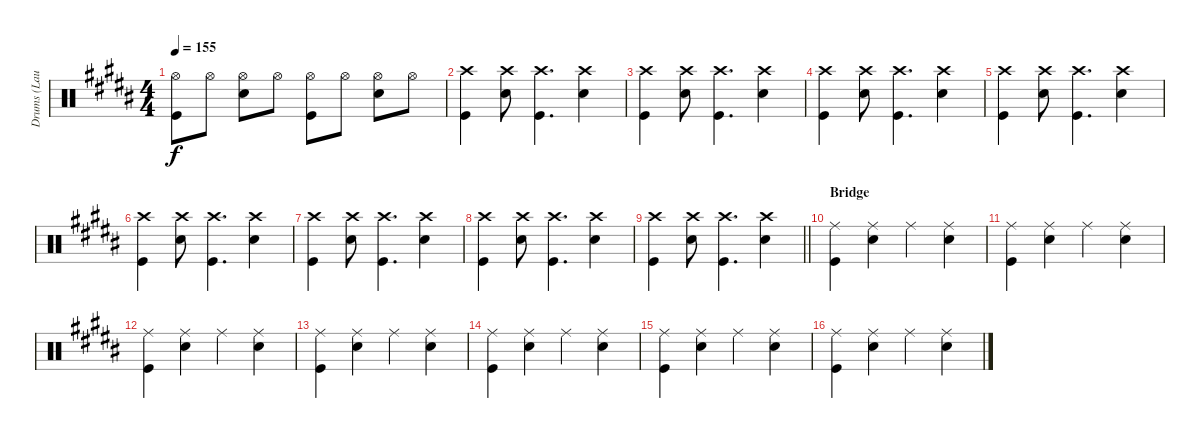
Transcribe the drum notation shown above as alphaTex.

\track ("Drums (Laust Sonne)" "Drums (Lau") {instrument percussion}
\staff {score}
\articulation defaults
\ts (4 4)
\tempo 155
\clef neutral
\ks b
("Hi-Hat (open)" "Kick (hit)").8{dy f} "Hi-Hat (open)".8 ("Hi-Hat (open)" "Snare (hit) 2").8 "Hi-Hat (open)".8 ("Hi-Hat (open)" "Kick (hit)").8 "Hi-Hat (open)".8 ("Hi-Hat (open)" "Snare (hit) 2").8 "Hi-Hat (open)".8 |
("Crash high (hit)" "Kick (hit)").4 ("Crash high (hit)" "Snare (hit) 2").8 ("Crash high (hit)" "Kick (hit)").4{d} ("Crash high (hit)" "Snare (hit) 2").4 |
("Crash high (hit)" "Kick (hit)").4 ("Crash high (hit)" "Snare (hit) 2").8 ("Crash high (hit)" "Kick (hit)").4{d} ("Crash high (hit)" "Snare (hit) 2").4 |
("Crash high (hit)" "Kick (hit)").4 ("Crash high (hit)" "Snare (hit) 2").8 ("Crash high (hit)" "Kick (hit)").4{d} ("Crash high (hit)" "Snare (hit) 2").4 |
("Crash high (hit)" "Kick (hit)").4 ("Crash high (hit)" "Snare (hit) 2").8 ("Crash high (hit)" "Kick (hit)").4{d} ("Crash high (hit)" "Snare (hit) 2").4 |
("Crash high (hit)" "Kick (hit)").4 ("Crash high (hit)" "Snare (hit) 2").8 ("Crash high (hit)" "Kick (hit)").4{d} ("Crash high (hit)" "Snare (hit) 2").4 |
("Crash high (hit)" "Kick (hit)").4 ("Crash high (hit)" "Snare (hit) 2").8 ("Crash high (hit)" "Kick (hit)").4{d} ("Crash high (hit)" "Snare (hit) 2").4 |
("Crash high (hit)" "Kick (hit)").4 ("Crash high (hit)" "Snare (hit) 2").8 ("Crash high (hit)" "Kick (hit)").4{d} ("Crash high (hit)" "Snare (hit) 2").4 |
\barLineRight lightlight
("Crash high (hit)" "Kick (hit)").4 ("Crash high (hit)" "Snare (hit) 2").8 ("Crash high (hit)" "Kick (hit)").4{d} ("Crash high (hit)" "Snare (hit) 2").4 |
\section ("" "Bridge")
("Ride (middle)" "Kick (hit)").4 ("Ride (middle)" "Snare (hit) 2").4 "Ride (middle)".4 ("Ride (middle)" "Snare (hit) 2").4 |
("Ride (middle)" "Kick (hit)").4 ("Ride (middle)" "Snare (hit) 2").4 "Ride (middle)".4 ("Ride (middle)" "Snare (hit) 2").4 |
("Ride (middle)" "Kick (hit)").4 ("Ride (middle)" "Snare (hit) 2").4 "Ride (middle)".4 ("Ride (middle)" "Snare (hit) 2").4 |
("Ride (middle)" "Kick (hit)").4 ("Ride (middle)" "Snare (hit) 2").4 "Ride (middle)".4 ("Ride (middle)" "Snare (hit) 2").4 |
("Ride (middle)" "Kick (hit)").4 ("Ride (middle)" "Snare (hit) 2").4 "Ride (middle)".4 ("Ride (middle)" "Snare (hit) 2").4 |
("Ride (middle)" "Kick (hit)").4 ("Ride (middle)" "Snare (hit) 2").4 "Ride (middle)".4 ("Ride (middle)" "Snare (hit) 2").4 |
("Ride (middle)" "Kick (hit)").4 ("Ride (middle)" "Snare (hit) 2").4 "Ride (middle)".4 ("Ride (middle)" "Snare (hit) 2").4
